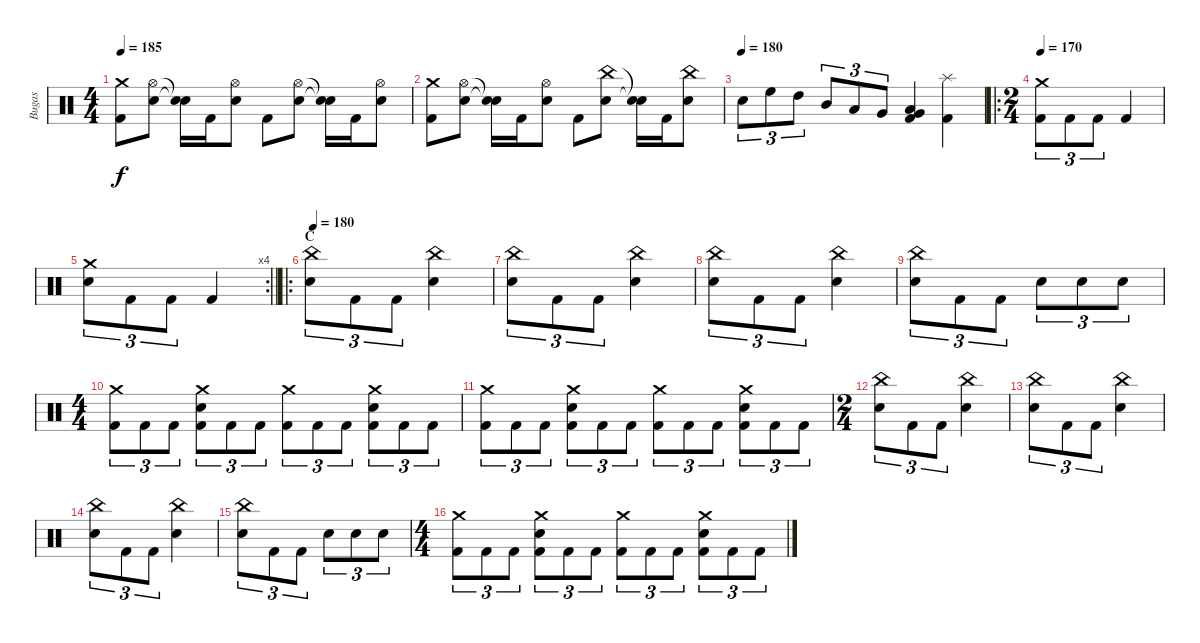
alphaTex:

\track ("Bugas" "Bugas") {instrument percussion}
\staff {score}
\articulation defaults
\ts (4 4)
\tempo 185
\clef neutral
\ks c
("Crash medium (hit)" "Kick (hit) 2").8{dy f} ("Hi-Hat (open)" "Electric Snare (hit)").8 ("Snare (hit)"{t} "Snare (hit)"{t}).16 "Kick (hit) 2".16 ("Hi-Hat (open)" "Electric Snare (hit)").8 "Kick (hit) 2".8 ("Hi-Hat (open)" "Electric Snare (hit)").8 ("Snare (hit)"{t} "Snare (hit)"{t}).16 "Kick (hit) 2".16 ("Hi-Hat (open)" "Electric Snare (hit)").8 |
("Crash medium (hit)" "Kick (hit) 2").8 ("Hi-Hat (open)" "Electric Snare (hit)").8 ("Snare (hit)"{t} "Snare (hit)"{t}).16 "Kick (hit) 2".16 ("Hi-Hat (open)" "Electric Snare (hit)").8 "Kick (hit) 2".8 ("China (hit)" "Electric Snare (hit)").8 ("Snare (hit)"{t} "Snare (hit)"{t}).16 "Kick (hit) 2".16 ("China (hit)" "Electric Snare (hit)").8 |
\tempo (180)
"Electric Snare (hit)".8{tu (3 2)} "High Floor Tom (hit)".8{tu (3 2)} "High Tom (hit)".8{tu (3 2)} "Mid Tom (hit)".8{tu (3 2)} "Low Tom (hit)".8{tu (3 2)} "Very Low Tom (hit)".8{tu (3 2)} ("Low Tom (hit)" "Very Low Tom (hit)" "Kick (hit) 2").4 ("Splash (hit)" "Kick (hit) 2").4 |
\ro
\ts (2 4)
\tempo 170
("Crash medium (hit)" "Kick (hit) 2").8{tu (3 2)} "Kick (hit) 2".8{tu (3 2)} "Kick (hit) 2".8{tu (3 2)} "Kick (hit) 2".4 |
\rc 4
\barLineRight lightlight
("Crash medium (hit)" "Electric Snare (hit)").8{tu (3 2)} "Kick (hit) 2".8{tu (3 2)} "Kick (hit) 2".8{tu (3 2)} "Kick (hit) 2".4 |
\ro
\section ("" "C")
\tempo 180
("China (hit)" "Electric Snare (hit)").8{tu (3 2)} "Kick (hit) 2".8{tu (3 2)} "Kick (hit) 2".8{tu (3 2)} ("China (hit)" "Electric Snare (hit)").4 |
("China (hit)" "Electric Snare (hit)").8{tu (3 2)} "Kick (hit) 2".8{tu (3 2)} "Kick (hit) 2".8{tu (3 2)} ("China (hit)" "Electric Snare (hit)").4 |
("China (hit)" "Electric Snare (hit)").8{tu (3 2)} "Kick (hit) 2".8{tu (3 2)} "Kick (hit) 2".8{tu (3 2)} ("China (hit)" "Electric Snare (hit)").4 |
("China (hit)" "Electric Snare (hit)").8{tu (3 2)} "Kick (hit) 2".8{tu (3 2)} "Kick (hit) 2".8{tu (3 2)} "Electric Snare (hit)".8{tu (3 2)} "Electric Snare (hit)".8{tu (3 2)} "Electric Snare (hit)".8{tu (3 2)} |
\ts (4 4)
("Crash medium (hit)" "Kick (hit) 2").8{tu (3 2)} "Kick (hit) 2".8{tu (3 2)} "Kick (hit) 2".8{tu (3 2)} ("Crash medium (hit)" "Electric Snare (hit)" "Kick (hit) 2").8{tu (3 2)} "Kick (hit) 2".8{tu (3 2)} "Kick (hit) 2".8{tu (3 2)} ("Crash medium (hit)" "Kick (hit) 2").8{tu (3 2)} "Kick (hit) 2".8{tu (3 2)} "Kick (hit) 2".8{tu (3 2)} ("Crash medium (hit)" "Electric Snare (hit)" "Kick (hit) 2").8{tu (3 2)} "Kick (hit) 2".8{tu (3 2)} "Kick (hit) 2".8{tu (3 2)} |
("Crash medium (hit)" "Kick (hit) 2").8{tu (3 2)} "Kick (hit) 2".8{tu (3 2)} "Kick (hit) 2".8{tu (3 2)} ("Crash medium (hit)" "Electric Snare (hit)" "Kick (hit) 2").8{tu (3 2)} "Kick (hit) 2".8{tu (3 2)} "Kick (hit) 2".8{tu (3 2)} ("Crash medium (hit)" "Kick (hit) 2").8{tu (3 2)} "Kick (hit) 2".8{tu (3 2)} "Kick (hit) 2".8{tu (3 2)} ("Crash medium (hit)" "Electric Snare (hit)" "Kick (hit) 2").8{tu (3 2)} "Kick (hit) 2".8{tu (3 2)} "Kick (hit) 2".8{tu (3 2)} |
\ts (2 4)
("China (hit)" "Electric Snare (hit)").8{tu (3 2)} "Kick (hit) 2".8{tu (3 2)} "Kick (hit) 2".8{tu (3 2)} ("China (hit)" "Electric Snare (hit)").4 |
("China (hit)" "Electric Snare (hit)").8{tu (3 2)} "Kick (hit) 2".8{tu (3 2)} "Kick (hit) 2".8{tu (3 2)} ("China (hit)" "Electric Snare (hit)").4 |
("China (hit)" "Electric Snare (hit)").8{tu (3 2)} "Kick (hit) 2".8{tu (3 2)} "Kick (hit) 2".8{tu (3 2)} ("China (hit)" "Electric Snare (hit)").4 |
("China (hit)" "Electric Snare (hit)").8{tu (3 2)} "Kick (hit) 2".8{tu (3 2)} "Kick (hit) 2".8{tu (3 2)} "Electric Snare (hit)".8{tu (3 2)} "Electric Snare (hit)".8{tu (3 2)} "Electric Snare (hit)".8{tu (3 2)} |
\ts (4 4)
("Crash medium (hit)" "Kick (hit) 2").8{tu (3 2)} "Kick (hit) 2".8{tu (3 2)} "Kick (hit) 2".8{tu (3 2)} ("Crash medium (hit)" "Electric Snare (hit)" "Kick (hit) 2").8{tu (3 2)} "Kick (hit) 2".8{tu (3 2)} "Kick (hit) 2".8{tu (3 2)} ("Crash medium (hit)" "Kick (hit) 2").8{tu (3 2)} "Kick (hit) 2".8{tu (3 2)} "Kick (hit) 2".8{tu (3 2)} ("Crash medium (hit)" "Electric Snare (hit)" "Kick (hit) 2").8{tu (3 2)} "Kick (hit) 2".8{tu (3 2)} "Kick (hit) 2".8{tu (3 2)}
